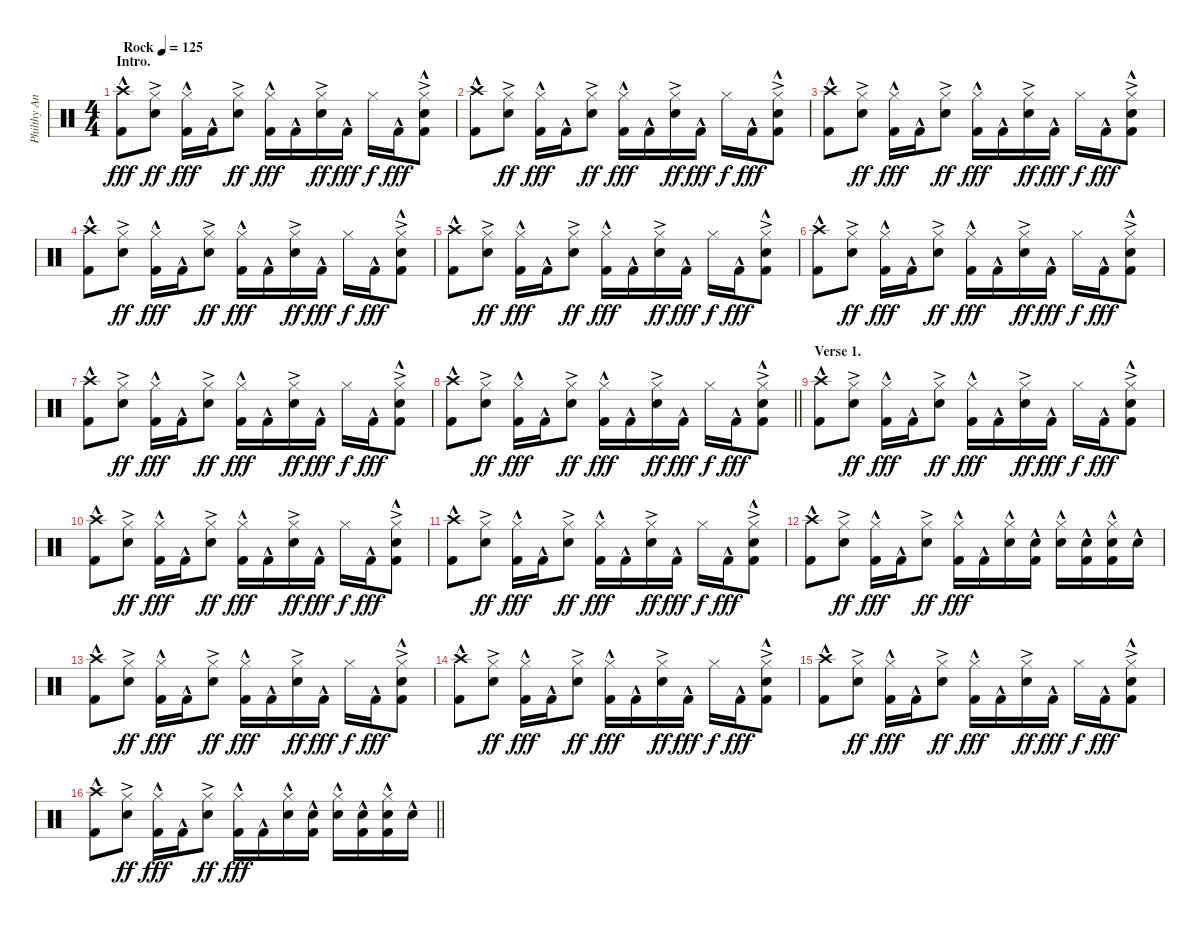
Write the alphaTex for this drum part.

\track ("Philthy Animal Taylor" "Philthy An") {instrument percussion}
\staff {score}
\articulation defaults
\ts (4 4)
\section ("" "Intro.")
\tempo (125 "Rock")
\clef neutral
\ks c
("Crash high (hit)" "Kick (hit) 2"{hac}).8{dy fff} ("Hi-Hat (closed)" "Electric Snare (hit)"{ac}).8{dy ff} ("Hi-Hat (closed)" "Kick (hit) 2"{hac}).16{dy fff} "Kick (hit) 2"{hac}.16 ("Hi-Hat (closed)" "Electric Snare (hit)"{ac}).8{dy ff} ("Hi-Hat (closed)" "Kick (hit) 2"{hac}).16{dy fff} "Kick (hit) 2"{hac}.16 ("Hi-Hat (closed)" "Electric Snare (hit)"{ac}).16{dy ff} "Kick (hit) 2"{hac}.16{dy fff} "Hi-Hat (closed)".16{dy f} "Kick (hit) 2"{hac}.16{dy fff} ("Hi-Hat (closed)" "Electric Snare (hit)"{ac} "Kick (hit) 2"{hac}).8 |
("Crash high (hit)" "Kick (hit) 2"{hac}).8 ("Hi-Hat (closed)" "Electric Snare (hit)"{ac}).8{dy ff} ("Hi-Hat (closed)" "Kick (hit) 2"{hac}).16{dy fff} "Kick (hit) 2"{hac}.16 ("Hi-Hat (closed)" "Electric Snare (hit)"{ac}).8{dy ff} ("Hi-Hat (closed)" "Kick (hit) 2"{hac}).16{dy fff} "Kick (hit) 2"{hac}.16 ("Hi-Hat (closed)" "Electric Snare (hit)"{ac}).16{dy ff} "Kick (hit) 2"{hac}.16{dy fff} "Hi-Hat (closed)".16{dy f} "Kick (hit) 2"{hac}.16{dy fff} ("Hi-Hat (closed)" "Electric Snare (hit)"{ac} "Kick (hit) 2"{hac}).8 |
("Crash high (hit)" "Kick (hit) 2"{hac}).8 ("Hi-Hat (closed)" "Electric Snare (hit)"{ac}).8{dy ff} ("Hi-Hat (closed)" "Kick (hit) 2"{hac}).16{dy fff} "Kick (hit) 2"{hac}.16 ("Hi-Hat (closed)" "Electric Snare (hit)"{ac}).8{dy ff} ("Hi-Hat (closed)" "Kick (hit) 2"{hac}).16{dy fff} "Kick (hit) 2"{hac}.16 ("Hi-Hat (closed)" "Electric Snare (hit)"{ac}).16{dy ff} "Kick (hit) 2"{hac}.16{dy fff} "Hi-Hat (closed)".16{dy f} "Kick (hit) 2"{hac}.16{dy fff} ("Hi-Hat (closed)" "Electric Snare (hit)"{ac} "Kick (hit) 2"{hac}).8 |
("Crash high (hit)" "Kick (hit) 2"{hac}).8 ("Hi-Hat (closed)" "Electric Snare (hit)"{ac}).8{dy ff} ("Hi-Hat (closed)" "Kick (hit) 2"{hac}).16{dy fff} "Kick (hit) 2"{hac}.16 ("Hi-Hat (closed)" "Electric Snare (hit)"{ac}).8{dy ff} ("Hi-Hat (closed)" "Kick (hit) 2"{hac}).16{dy fff} "Kick (hit) 2"{hac}.16 ("Hi-Hat (closed)" "Electric Snare (hit)"{ac}).16{dy ff} "Kick (hit) 2"{hac}.16{dy fff} "Hi-Hat (closed)".16{dy f} "Kick (hit) 2"{hac}.16{dy fff} ("Hi-Hat (closed)" "Electric Snare (hit)"{ac} "Kick (hit) 2"{hac}).8 |
("Crash high (hit)" "Kick (hit) 2"{hac}).8 ("Hi-Hat (closed)" "Electric Snare (hit)"{ac}).8{dy ff} ("Hi-Hat (closed)" "Kick (hit) 2"{hac}).16{dy fff} "Kick (hit) 2"{hac}.16 ("Hi-Hat (closed)" "Electric Snare (hit)"{ac}).8{dy ff} ("Hi-Hat (closed)" "Kick (hit) 2"{hac}).16{dy fff} "Kick (hit) 2"{hac}.16 ("Hi-Hat (closed)" "Electric Snare (hit)"{ac}).16{dy ff} "Kick (hit) 2"{hac}.16{dy fff} "Hi-Hat (closed)".16{dy f} "Kick (hit) 2"{hac}.16{dy fff} ("Hi-Hat (closed)" "Electric Snare (hit)"{ac} "Kick (hit) 2"{hac}).8 |
("Crash high (hit)" "Kick (hit) 2"{hac}).8 ("Hi-Hat (closed)" "Electric Snare (hit)"{ac}).8{dy ff} ("Hi-Hat (closed)" "Kick (hit) 2"{hac}).16{dy fff} "Kick (hit) 2"{hac}.16 ("Hi-Hat (closed)" "Electric Snare (hit)"{ac}).8{dy ff} ("Hi-Hat (closed)" "Kick (hit) 2"{hac}).16{dy fff} "Kick (hit) 2"{hac}.16 ("Hi-Hat (closed)" "Electric Snare (hit)"{ac}).16{dy ff} "Kick (hit) 2"{hac}.16{dy fff} "Hi-Hat (closed)".16{dy f} "Kick (hit) 2"{hac}.16{dy fff} ("Hi-Hat (closed)" "Electric Snare (hit)"{ac} "Kick (hit) 2"{hac}).8 |
("Crash high (hit)" "Kick (hit) 2"{hac}).8 ("Hi-Hat (closed)" "Electric Snare (hit)"{ac}).8{dy ff} ("Hi-Hat (closed)" "Kick (hit) 2"{hac}).16{dy fff} "Kick (hit) 2"{hac}.16 ("Hi-Hat (closed)" "Electric Snare (hit)"{ac}).8{dy ff} ("Hi-Hat (closed)" "Kick (hit) 2"{hac}).16{dy fff} "Kick (hit) 2"{hac}.16 ("Hi-Hat (closed)" "Electric Snare (hit)"{ac}).16{dy ff} "Kick (hit) 2"{hac}.16{dy fff} "Hi-Hat (closed)".16{dy f} "Kick (hit) 2"{hac}.16{dy fff} ("Hi-Hat (closed)" "Electric Snare (hit)"{ac} "Kick (hit) 2"{hac}).8 |
\barLineRight lightlight
("Crash high (hit)" "Kick (hit) 2"{hac}).8 ("Hi-Hat (closed)" "Electric Snare (hit)"{ac}).8{dy ff} ("Hi-Hat (closed)" "Kick (hit) 2"{hac}).16{dy fff} "Kick (hit) 2"{hac}.16 ("Hi-Hat (closed)" "Electric Snare (hit)"{ac}).8{dy ff} ("Hi-Hat (closed)" "Kick (hit) 2"{hac}).16{dy fff} "Kick (hit) 2"{hac}.16 ("Hi-Hat (closed)" "Electric Snare (hit)"{ac}).16{dy ff} "Kick (hit) 2"{hac}.16{dy fff} "Hi-Hat (closed)".16{dy f} "Kick (hit) 2"{hac}.16{dy fff} ("Hi-Hat (closed)" "Electric Snare (hit)"{ac} "Kick (hit) 2"{hac}).8 |
\section ("" "Verse 1.")
("Crash high (hit)" "Kick (hit) 2"{hac}).8 ("Hi-Hat (closed)" "Electric Snare (hit)"{ac}).8{dy ff} ("Hi-Hat (closed)" "Kick (hit) 2"{hac}).16{dy fff} "Kick (hit) 2"{hac}.16 ("Hi-Hat (closed)" "Electric Snare (hit)"{ac}).8{dy ff} ("Hi-Hat (closed)" "Kick (hit) 2"{hac}).16{dy fff} "Kick (hit) 2"{hac}.16 ("Hi-Hat (closed)" "Electric Snare (hit)"{ac}).16{dy ff} "Kick (hit) 2"{hac}.16{dy fff} "Hi-Hat (closed)".16{dy f} "Kick (hit) 2"{hac}.16{dy fff} ("Hi-Hat (closed)" "Electric Snare (hit)"{ac} "Kick (hit) 2"{hac}).8 |
("Crash high (hit)" "Kick (hit) 2"{hac}).8 ("Hi-Hat (closed)" "Electric Snare (hit)"{ac}).8{dy ff} ("Hi-Hat (closed)" "Kick (hit) 2"{hac}).16{dy fff} "Kick (hit) 2"{hac}.16 ("Hi-Hat (closed)" "Electric Snare (hit)"{ac}).8{dy ff} ("Hi-Hat (closed)" "Kick (hit) 2"{hac}).16{dy fff} "Kick (hit) 2"{hac}.16 ("Hi-Hat (closed)" "Electric Snare (hit)"{ac}).16{dy ff} "Kick (hit) 2"{hac}.16{dy fff} "Hi-Hat (closed)".16{dy f} "Kick (hit) 2"{hac}.16{dy fff} ("Hi-Hat (closed)" "Electric Snare (hit)"{ac} "Kick (hit) 2"{hac}).8 |
("Crash high (hit)" "Kick (hit) 2"{hac}).8 ("Hi-Hat (closed)" "Electric Snare (hit)"{ac}).8{dy ff} ("Hi-Hat (closed)" "Kick (hit) 2"{hac}).16{dy fff} "Kick (hit) 2"{hac}.16 ("Hi-Hat (closed)" "Electric Snare (hit)"{ac}).8{dy ff} ("Hi-Hat (closed)" "Kick (hit) 2"{hac}).16{dy fff} "Kick (hit) 2"{hac}.16 ("Hi-Hat (closed)" "Electric Snare (hit)"{ac}).16{dy ff} "Kick (hit) 2"{hac}.16{dy fff} "Hi-Hat (closed)".16{dy f} "Kick (hit) 2"{hac}.16{dy fff} ("Hi-Hat (closed)" "Electric Snare (hit)"{ac} "Kick (hit) 2"{hac}).8 |
("Crash high (hit)" "Kick (hit) 2"{hac}).8 ("Hi-Hat (closed)" "Electric Snare (hit)"{ac}).8{dy ff} ("Hi-Hat (closed)" "Kick (hit) 2"{hac}).16{dy fff} "Kick (hit) 2"{hac}.16 ("Hi-Hat (closed)" "Electric Snare (hit)"{ac}).8{dy ff} ("Hi-Hat (closed)" "Kick (hit) 2"{hac}).16{dy fff} "Kick (hit) 2"{hac}.16 ("Hi-Hat (closed)" "Electric Snare (hit)"{hac}).16 ("Electric Snare (hit)"{hac} "Kick (hit) 2"{hac}).16 ("Hi-Hat (closed)" "Electric Snare (hit)"{hac}).16 ("Electric Snare (hit)"{hac} "Kick (hit) 2"{hac}).16 ("Hi-Hat (closed)" "Electric Snare (hit)"{hac} "Kick (hit) 2"{hac}).16 "Electric Snare (hit)"{hac}.16 |
("Crash high (hit)" "Kick (hit) 2"{hac}).8 ("Hi-Hat (closed)" "Electric Snare (hit)"{ac}).8{dy ff} ("Hi-Hat (closed)" "Kick (hit) 2"{hac}).16{dy fff} "Kick (hit) 2"{hac}.16 ("Hi-Hat (closed)" "Electric Snare (hit)"{ac}).8{dy ff} ("Hi-Hat (closed)" "Kick (hit) 2"{hac}).16{dy fff} "Kick (hit) 2"{hac}.16 ("Hi-Hat (closed)" "Electric Snare (hit)"{ac}).16{dy ff} "Kick (hit) 2"{hac}.16{dy fff} "Hi-Hat (closed)".16{dy f} "Kick (hit) 2"{hac}.16{dy fff} ("Hi-Hat (closed)" "Electric Snare (hit)"{ac} "Kick (hit) 2"{hac}).8 |
("Crash high (hit)" "Kick (hit) 2"{hac}).8 ("Hi-Hat (closed)" "Electric Snare (hit)"{ac}).8{dy ff} ("Hi-Hat (closed)" "Kick (hit) 2"{hac}).16{dy fff} "Kick (hit) 2"{hac}.16 ("Hi-Hat (closed)" "Electric Snare (hit)"{ac}).8{dy ff} ("Hi-Hat (closed)" "Kick (hit) 2"{hac}).16{dy fff} "Kick (hit) 2"{hac}.16 ("Hi-Hat (closed)" "Electric Snare (hit)"{ac}).16{dy ff} "Kick (hit) 2"{hac}.16{dy fff} "Hi-Hat (closed)".16{dy f} "Kick (hit) 2"{hac}.16{dy fff} ("Hi-Hat (closed)" "Electric Snare (hit)"{ac} "Kick (hit) 2"{hac}).8 |
("Crash high (hit)" "Kick (hit) 2"{hac}).8 ("Hi-Hat (closed)" "Electric Snare (hit)"{ac}).8{dy ff} ("Hi-Hat (closed)" "Kick (hit) 2"{hac}).16{dy fff} "Kick (hit) 2"{hac}.16 ("Hi-Hat (closed)" "Electric Snare (hit)"{ac}).8{dy ff} ("Hi-Hat (closed)" "Kick (hit) 2"{hac}).16{dy fff} "Kick (hit) 2"{hac}.16 ("Hi-Hat (closed)" "Electric Snare (hit)"{ac}).16{dy ff} "Kick (hit) 2"{hac}.16{dy fff} "Hi-Hat (closed)".16{dy f} "Kick (hit) 2"{hac}.16{dy fff} ("Hi-Hat (closed)" "Electric Snare (hit)"{ac} "Kick (hit) 2"{hac}).8 |
\barLineRight lightlight
("Crash high (hit)" "Kick (hit) 2"{hac}).8 ("Hi-Hat (closed)" "Electric Snare (hit)"{ac}).8{dy ff} ("Hi-Hat (closed)" "Kick (hit) 2"{hac}).16{dy fff} "Kick (hit) 2"{hac}.16 ("Hi-Hat (closed)" "Electric Snare (hit)"{ac}).8{dy ff} ("Hi-Hat (closed)" "Kick (hit) 2"{hac}).16{dy fff} "Kick (hit) 2"{hac}.16 ("Hi-Hat (closed)" "Electric Snare (hit)"{hac}).16 ("Electric Snare (hit)"{hac} "Kick (hit) 2"{hac}).16 ("Hi-Hat (closed)" "Electric Snare (hit)"{hac}).16 ("Electric Snare (hit)"{hac} "Kick (hit) 2"{hac}).16 ("Hi-Hat (closed)" "Electric Snare (hit)"{hac} "Kick (hit) 2"{hac}).16 "Electric Snare (hit)"{hac}.16
